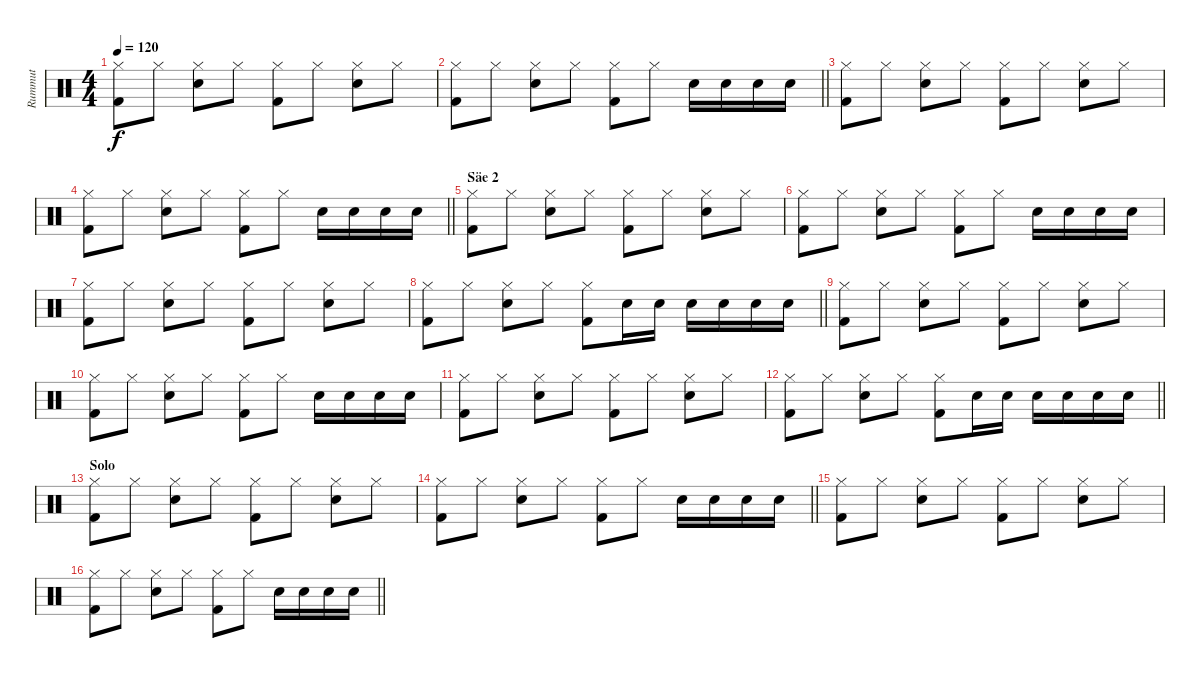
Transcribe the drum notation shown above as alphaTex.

\track ("Rummut" "Rummut") {instrument percussion}
\staff {score}
\articulation defaults
\ts (4 4)
\tempo 120
\clef neutral
\ks c
("Hi-Hat (closed)" "Kick (hit) 2").8{dy f} "Hi-Hat (closed)".8 ("Hi-Hat (closed)" "Electric Snare (hit)").8 "Hi-Hat (closed)".8 ("Hi-Hat (closed)" "Kick (hit) 2").8 "Hi-Hat (closed)".8 ("Hi-Hat (closed)" "Electric Snare (hit)").8 "Hi-Hat (closed)".8 |
\barLineRight lightlight
("Hi-Hat (closed)" "Kick (hit) 2").8 "Hi-Hat (closed)".8 ("Hi-Hat (closed)" "Electric Snare (hit)").8 "Hi-Hat (closed)".8 ("Hi-Hat (closed)" "Kick (hit) 2").8 "Hi-Hat (closed)".8 "Electric Snare (hit)".16 "Electric Snare (hit)".16 "Electric Snare (hit)".16 "Electric Snare (hit)".16 |
("Hi-Hat (closed)" "Kick (hit) 2").8 "Hi-Hat (closed)".8 ("Hi-Hat (closed)" "Electric Snare (hit)").8 "Hi-Hat (closed)".8 ("Hi-Hat (closed)" "Kick (hit) 2").8 "Hi-Hat (closed)".8 ("Hi-Hat (closed)" "Electric Snare (hit)").8 "Hi-Hat (closed)".8 |
\barLineRight lightlight
("Hi-Hat (closed)" "Kick (hit) 2").8 "Hi-Hat (closed)".8 ("Hi-Hat (closed)" "Electric Snare (hit)").8 "Hi-Hat (closed)".8 ("Hi-Hat (closed)" "Kick (hit) 2").8 "Hi-Hat (closed)".8 "Electric Snare (hit)".16 "Electric Snare (hit)".16 "Electric Snare (hit)".16 "Electric Snare (hit)".16 |
\section ("" "Säe 2")
("Hi-Hat (closed)" "Kick (hit) 2").8 "Hi-Hat (closed)".8 ("Hi-Hat (closed)" "Electric Snare (hit)").8 "Hi-Hat (closed)".8 ("Hi-Hat (closed)" "Kick (hit) 2").8 "Hi-Hat (closed)".8 ("Hi-Hat (closed)" "Electric Snare (hit)").8 "Hi-Hat (closed)".8 |
("Hi-Hat (closed)" "Kick (hit) 2").8 "Hi-Hat (closed)".8 ("Hi-Hat (closed)" "Electric Snare (hit)").8 "Hi-Hat (closed)".8 ("Hi-Hat (closed)" "Kick (hit) 2").8 "Hi-Hat (closed)".8 "Electric Snare (hit)".16 "Electric Snare (hit)".16 "Electric Snare (hit)".16 "Electric Snare (hit)".16 |
("Hi-Hat (closed)" "Kick (hit) 2").8 "Hi-Hat (closed)".8 ("Hi-Hat (closed)" "Electric Snare (hit)").8 "Hi-Hat (closed)".8 ("Hi-Hat (closed)" "Kick (hit) 2").8 "Hi-Hat (closed)".8 ("Hi-Hat (closed)" "Electric Snare (hit)").8 "Hi-Hat (closed)".8 |
\barLineRight lightlight
("Hi-Hat (closed)" "Kick (hit) 2").8 "Hi-Hat (closed)".8 ("Hi-Hat (closed)" "Electric Snare (hit)").8 "Hi-Hat (closed)".8 ("Hi-Hat (closed)" "Kick (hit) 2").8 "Electric Snare (hit)".16 "Electric Snare (hit)".16 "Electric Snare (hit)".16 "Electric Snare (hit)".16 "Electric Snare (hit)".16 "Electric Snare (hit)".16 |
("Hi-Hat (closed)" "Kick (hit) 2").8 "Hi-Hat (closed)".8 ("Hi-Hat (closed)" "Electric Snare (hit)").8 "Hi-Hat (closed)".8 ("Hi-Hat (closed)" "Kick (hit) 2").8 "Hi-Hat (closed)".8 ("Hi-Hat (closed)" "Electric Snare (hit)").8 "Hi-Hat (closed)".8 |
("Hi-Hat (closed)" "Kick (hit) 2").8 "Hi-Hat (closed)".8 ("Hi-Hat (closed)" "Electric Snare (hit)").8 "Hi-Hat (closed)".8 ("Hi-Hat (closed)" "Kick (hit) 2").8 "Hi-Hat (closed)".8 "Electric Snare (hit)".16 "Electric Snare (hit)".16 "Electric Snare (hit)".16 "Electric Snare (hit)".16 |
("Hi-Hat (closed)" "Kick (hit) 2").8 "Hi-Hat (closed)".8 ("Hi-Hat (closed)" "Electric Snare (hit)").8 "Hi-Hat (closed)".8 ("Hi-Hat (closed)" "Kick (hit) 2").8 "Hi-Hat (closed)".8 ("Hi-Hat (closed)" "Electric Snare (hit)").8 "Hi-Hat (closed)".8 |
\barLineRight lightlight
("Hi-Hat (closed)" "Kick (hit) 2").8 "Hi-Hat (closed)".8 ("Hi-Hat (closed)" "Electric Snare (hit)").8 "Hi-Hat (closed)".8 ("Hi-Hat (closed)" "Kick (hit) 2").8 "Electric Snare (hit)".16 "Electric Snare (hit)".16 "Electric Snare (hit)".16 "Electric Snare (hit)".16 "Electric Snare (hit)".16 "Electric Snare (hit)".16 |
\section ("" "Solo")
("Hi-Hat (closed)" "Kick (hit) 2").8 "Hi-Hat (closed)".8 ("Hi-Hat (closed)" "Electric Snare (hit)").8 "Hi-Hat (closed)".8 ("Hi-Hat (closed)" "Kick (hit) 2").8 "Hi-Hat (closed)".8 ("Hi-Hat (closed)" "Electric Snare (hit)").8 "Hi-Hat (closed)".8 |
\barLineRight lightlight
("Hi-Hat (closed)" "Kick (hit) 2").8 "Hi-Hat (closed)".8 ("Hi-Hat (closed)" "Electric Snare (hit)").8 "Hi-Hat (closed)".8 ("Hi-Hat (closed)" "Kick (hit) 2").8 "Hi-Hat (closed)".8 "Electric Snare (hit)".16 "Electric Snare (hit)".16 "Electric Snare (hit)".16 "Electric Snare (hit)".16 |
("Hi-Hat (closed)" "Kick (hit) 2").8 "Hi-Hat (closed)".8 ("Hi-Hat (closed)" "Electric Snare (hit)").8 "Hi-Hat (closed)".8 ("Hi-Hat (closed)" "Kick (hit) 2").8 "Hi-Hat (closed)".8 ("Hi-Hat (closed)" "Electric Snare (hit)").8 "Hi-Hat (closed)".8 |
\barLineRight lightlight
("Hi-Hat (closed)" "Kick (hit) 2").8 "Hi-Hat (closed)".8 ("Hi-Hat (closed)" "Electric Snare (hit)").8 "Hi-Hat (closed)".8 ("Hi-Hat (closed)" "Kick (hit) 2").8 "Hi-Hat (closed)".8 "Electric Snare (hit)".16 "Electric Snare (hit)".16 "Electric Snare (hit)".16 "Electric Snare (hit)".16
